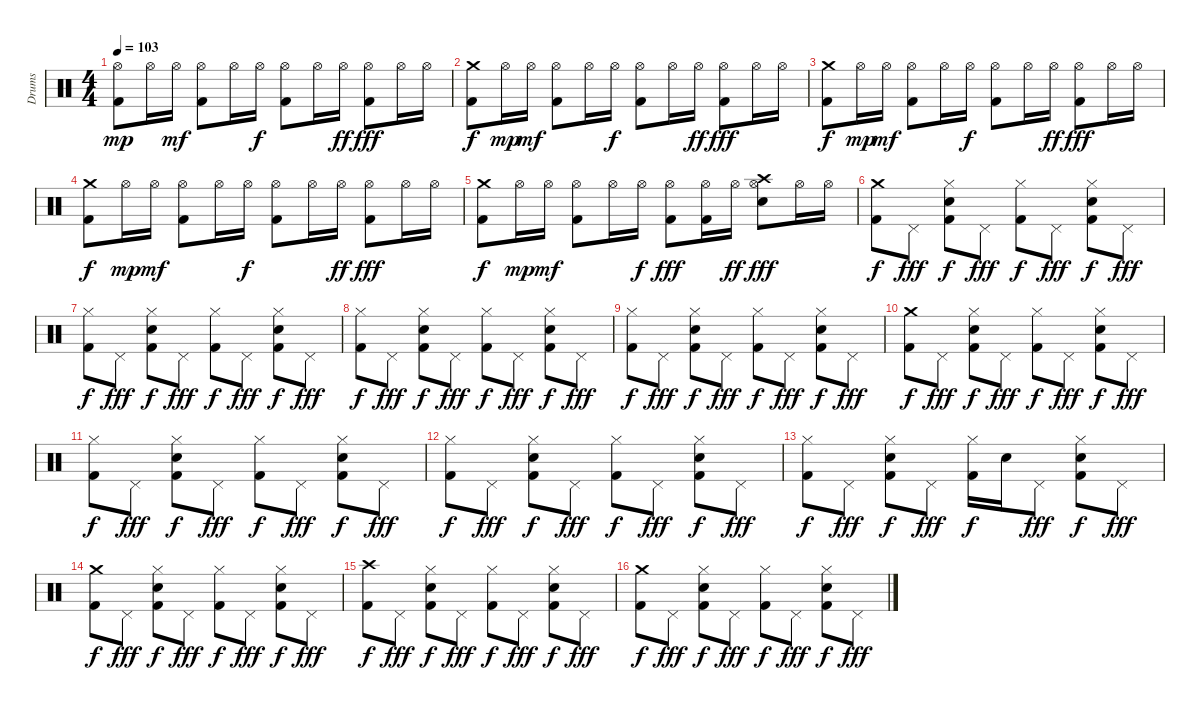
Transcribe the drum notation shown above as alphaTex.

\track ("Drums" "Drums") {instrument percussion}
\staff {score}
\articulation defaults
\ts (4 4)
\tempo 103
\clef neutral
\ks c
("Kick (hit) 2" "Hi-Hat (open)").8{dy mp} "Hi-Hat (open)".16 "Hi-Hat (open)".16{dy mf} ("Kick (hit) 2" "Hi-Hat (open)").8 "Hi-Hat (open)".16 "Hi-Hat (open)".16{dy f} ("Kick (hit) 2" "Hi-Hat (open)").8 "Hi-Hat (open)".16 "Hi-Hat (open)".16{dy ff} ("Kick (hit) 2" "Hi-Hat (open)").8{dy fff} "Hi-Hat (open)".16 "Hi-Hat (open)".16 |
("Kick (hit) 2" "Crash medium (hit)").8{dy f} "Hi-Hat (open)".16{dy mp} "Hi-Hat (open)".16{dy mf} ("Kick (hit) 2" "Hi-Hat (open)").8 "Hi-Hat (open)".16 "Hi-Hat (open)".16{dy f} ("Kick (hit) 2" "Hi-Hat (open)").8 "Hi-Hat (open)".16 "Hi-Hat (open)".16{dy ff} ("Kick (hit) 2" "Hi-Hat (open)").8{dy fff} "Hi-Hat (open)".16 "Hi-Hat (open)".16 |
("Kick (hit) 2" "Crash medium (hit)").8{dy f} "Hi-Hat (open)".16{dy mp} "Hi-Hat (open)".16{dy mf} ("Kick (hit) 2" "Hi-Hat (open)").8 "Hi-Hat (open)".16 "Hi-Hat (open)".16{dy f} ("Kick (hit) 2" "Hi-Hat (open)").8 "Hi-Hat (open)".16 "Hi-Hat (open)".16{dy ff} ("Kick (hit) 2" "Hi-Hat (open)").8{dy fff} "Hi-Hat (open)".16 "Hi-Hat (open)".16 |
("Kick (hit) 2" "Crash medium (hit)").8{dy f} "Hi-Hat (open)".16{dy mp} "Hi-Hat (open)".16{dy mf} ("Kick (hit) 2" "Hi-Hat (open)").8 "Hi-Hat (open)".16 "Hi-Hat (open)".16{dy f} ("Kick (hit) 2" "Hi-Hat (open)").8 "Hi-Hat (open)".16 "Hi-Hat (open)".16{dy ff} ("Kick (hit) 2" "Hi-Hat (open)").8{dy fff} "Hi-Hat (open)".16 "Hi-Hat (open)".16 |
("Kick (hit) 2" "Crash medium (hit)").8{dy f} "Hi-Hat (open)".16{dy mp} "Hi-Hat (open)".16{dy mf} ("Kick (hit) 2" "Hi-Hat (open)").8 "Hi-Hat (open)".16 "Hi-Hat (open)".16{dy f} ("Kick (hit) 2" "Hi-Hat (open)").8{dy fff} ("Kick (hit) 2" "Hi-Hat (open)").16 "Hi-Hat (open)".16{dy ff} ("Crash high (hit)" "Hi-Hat (open)" "Snare (hit) 2").8{dy fff} "Hi-Hat (open)".16 "Hi-Hat (open)".16 |
("Kick (hit) 2" "Crash medium (hit)").8{dy f} "Pedal Hi-Hat (hit)".8{dy fff} ("Kick (hit) 2" "Hi-Hat (closed)" "Snare (hit) 2").8{dy f} "Pedal Hi-Hat (hit)".8{dy fff} ("Kick (hit) 2" "Hi-Hat (closed)").8{dy f} "Pedal Hi-Hat (hit)".8{dy fff} ("Kick (hit) 2" "Hi-Hat (closed)" "Snare (hit) 2").8{dy f} "Pedal Hi-Hat (hit)".8{dy fff} |
("Kick (hit) 2" "Hi-Hat (closed)").8{dy f} "Pedal Hi-Hat (hit)".8{dy fff} ("Kick (hit) 2" "Hi-Hat (closed)" "Snare (hit) 2").8{dy f} "Pedal Hi-Hat (hit)".8{dy fff} ("Kick (hit) 2" "Hi-Hat (closed)").8{dy f} "Pedal Hi-Hat (hit)".8{dy fff} ("Kick (hit) 2" "Hi-Hat (closed)" "Snare (hit) 2").8{dy f} "Pedal Hi-Hat (hit)".8{dy fff} |
("Kick (hit) 2" "Hi-Hat (closed)").8{dy f} "Pedal Hi-Hat (hit)".8{dy fff} ("Kick (hit) 2" "Hi-Hat (closed)" "Snare (hit) 2").8{dy f} "Pedal Hi-Hat (hit)".8{dy fff} ("Kick (hit) 2" "Hi-Hat (closed)").8{dy f} "Pedal Hi-Hat (hit)".8{dy fff} ("Kick (hit) 2" "Hi-Hat (closed)" "Snare (hit) 2").8{dy f} "Pedal Hi-Hat (hit)".8{dy fff} |
("Kick (hit) 2" "Hi-Hat (closed)").8{dy f} "Pedal Hi-Hat (hit)".8{dy fff} ("Kick (hit) 2" "Hi-Hat (closed)" "Snare (hit) 2").8{dy f} "Pedal Hi-Hat (hit)".8{dy fff} ("Kick (hit) 2" "Hi-Hat (closed)").8{dy f} "Pedal Hi-Hat (hit)".8{dy fff} ("Kick (hit) 2" "Hi-Hat (closed)" "Snare (hit) 2").8{dy f} "Pedal Hi-Hat (hit)".8{dy fff} |
("Kick (hit) 2" "Crash medium (hit)").8{dy f} "Pedal Hi-Hat (hit)".8{dy fff} ("Kick (hit) 2" "Hi-Hat (closed)" "Snare (hit) 2").8{dy f} "Pedal Hi-Hat (hit)".8{dy fff} ("Kick (hit) 2" "Hi-Hat (closed)").8{dy f} "Pedal Hi-Hat (hit)".8{dy fff} ("Kick (hit) 2" "Hi-Hat (closed)" "Snare (hit) 2").8{dy f} "Pedal Hi-Hat (hit)".8{dy fff} |
("Kick (hit) 2" "Hi-Hat (closed)").8{dy f} "Pedal Hi-Hat (hit)".8{dy fff} ("Kick (hit) 2" "Hi-Hat (closed)" "Snare (hit) 2").8{dy f} "Pedal Hi-Hat (hit)".8{dy fff} ("Kick (hit) 2" "Hi-Hat (closed)").8{dy f} "Pedal Hi-Hat (hit)".8{dy fff} ("Kick (hit) 2" "Hi-Hat (closed)" "Snare (hit) 2").8{dy f} "Pedal Hi-Hat (hit)".8{dy fff} |
("Kick (hit) 2" "Hi-Hat (closed)").8{dy f} "Pedal Hi-Hat (hit)".8{dy fff} ("Kick (hit) 2" "Hi-Hat (closed)" "Snare (hit) 2").8{dy f} "Pedal Hi-Hat (hit)".8{dy fff} ("Kick (hit) 2" "Hi-Hat (closed)").8{dy f} "Pedal Hi-Hat (hit)".8{dy fff} ("Kick (hit) 2" "Hi-Hat (closed)" "Snare (hit) 2").8{dy f} "Pedal Hi-Hat (hit)".8{dy fff} |
("Kick (hit) 2" "Hi-Hat (closed)").8{dy f} "Pedal Hi-Hat (hit)".8{dy fff} ("Kick (hit) 2" "Hi-Hat (closed)" "Snare (hit) 2").8{dy f} "Pedal Hi-Hat (hit)".8{dy fff} ("Kick (hit) 2" "Hi-Hat (closed)").16{dy f} "Snare (hit) 2".16 "Pedal Hi-Hat (hit)".8{dy fff} ("Kick (hit) 2" "Hi-Hat (closed)" "Snare (hit) 2").8{dy f} "Pedal Hi-Hat (hit)".8{dy fff} |
("Kick (hit) 2" "Crash medium (hit)").8{dy f} "Pedal Hi-Hat (hit)".8{dy fff} ("Kick (hit) 2" "Hi-Hat (closed)" "Snare (hit) 2").8{dy f} "Pedal Hi-Hat (hit)".8{dy fff} ("Kick (hit) 2" "Hi-Hat (closed)").8{dy f} "Pedal Hi-Hat (hit)".8{dy fff} ("Kick (hit) 2" "Hi-Hat (closed)" "Snare (hit) 2").8{dy f} "Pedal Hi-Hat (hit)".8{dy fff} |
("Kick (hit) 2" "Crash high (hit)").8{dy f} "Pedal Hi-Hat (hit)".8{dy fff} ("Kick (hit) 2" "Hi-Hat (closed)" "Snare (hit) 2").8{dy f} "Pedal Hi-Hat (hit)".8{dy fff} ("Kick (hit) 2" "Hi-Hat (closed)").8{dy f} "Pedal Hi-Hat (hit)".8{dy fff} ("Kick (hit) 2" "Hi-Hat (closed)" "Snare (hit) 2").8{dy f} "Pedal Hi-Hat (hit)".8{dy fff} |
("Kick (hit) 2" "Crash medium (hit)").8{dy f} "Pedal Hi-Hat (hit)".8{dy fff} ("Kick (hit) 2" "Hi-Hat (closed)" "Snare (hit) 2").8{dy f} "Pedal Hi-Hat (hit)".8{dy fff} ("Kick (hit) 2" "Hi-Hat (closed)").8{dy f} "Pedal Hi-Hat (hit)".8{dy fff} ("Kick (hit) 2" "Hi-Hat (closed)" "Snare (hit) 2").8{dy f} "Pedal Hi-Hat (hit)".8{dy fff}
